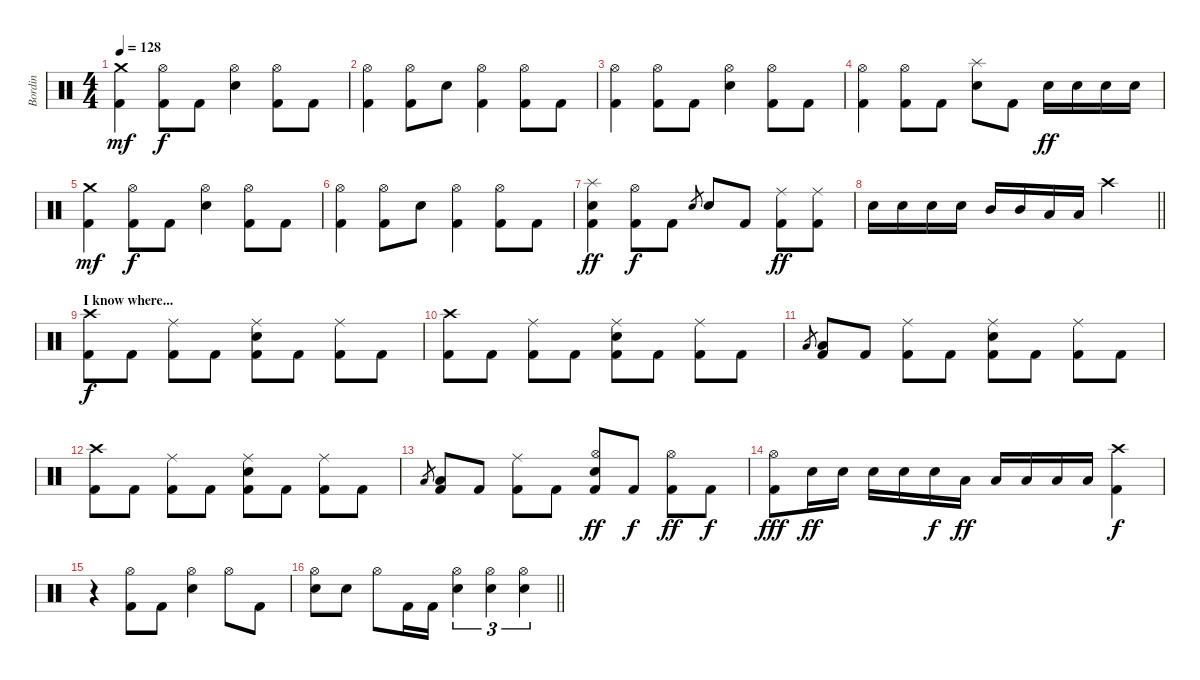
\track ("Bordin" "Bordin") {instrument percussion}
\staff {score}
\articulation defaults
\ts (4 4)
\tempo 128
\clef neutral
\ks c
("Crash medium (hit)" "Kick (hit) 2").4{dy mf} ("Hi-Hat (open)" "Kick (hit) 2").8{dy f} "Kick (hit) 2".8 ("Hi-Hat (open)" "Electric Snare (hit)").4 ("Hi-Hat (open)" "Kick (hit) 2").8 "Kick (hit) 2".8 |
("Hi-Hat (open)" "Kick (hit) 2").4 ("Hi-Hat (open)" "Kick (hit) 2").8 "Electric Snare (hit)".8 ("Hi-Hat (open)" "Kick (hit) 2").4 ("Hi-Hat (open)" "Kick (hit) 2").8 "Kick (hit) 2".8 |
("Hi-Hat (open)" "Kick (hit) 2").4 ("Hi-Hat (open)" "Kick (hit) 2").8 "Kick (hit) 2".8 ("Hi-Hat (open)" "Electric Snare (hit)").4 ("Hi-Hat (open)" "Kick (hit) 2").8 "Kick (hit) 2".8 |
("Hi-Hat (open)" "Kick (hit) 2").4 ("Hi-Hat (open)" "Kick (hit) 2").8 "Kick (hit) 2".8 ("Splash (hit)" "Electric Snare (hit)").8 "Kick (hit) 2".8 "Electric Snare (hit)".16{dy ff} "Electric Snare (hit)".16 "Electric Snare (hit)".16 "Electric Snare (hit)".16 |
("Crash medium (hit)" "Kick (hit) 2").4{dy mf} ("Hi-Hat (open)" "Kick (hit) 2").8{dy f} "Kick (hit) 2".8 ("Hi-Hat (open)" "Electric Snare (hit)").4 ("Hi-Hat (open)" "Kick (hit) 2").8 "Kick (hit) 2".8 |
("Hi-Hat (open)" "Kick (hit) 2").4 ("Hi-Hat (open)" "Kick (hit) 2").8 "Electric Snare (hit)".8 ("Hi-Hat (open)" "Kick (hit) 2").4 ("Hi-Hat (open)" "Kick (hit) 2").8 "Kick (hit) 2".8 |
("Splash (hit)" "Electric Snare (hit)" "Kick (hit) 2").4{dy ff} ("Hi-Hat (open)" "Kick (hit) 2").8{dy f} "Kick (hit) 2".8 "Electric Snare (hit)".8{gr} "Electric Snare (hit)".8 "Kick (hit) 2".8 ("Ride (middle)" "Kick (hit) 2").8{dy ff} ("Ride (middle)" "Kick (hit) 2").8 |
\barLineRight lightlight "Electric Snare (hit)".16 "Electric Snare (hit)".16 "Electric Snare (hit)".16 "Electric Snare (hit)".16 "Mid Tom (hit)".16 "Mid Tom (hit)".16 "Low Tom (hit)".16 "Low Tom (hit)".16 "Crash high (hit)".2
|
\section ("" "I know where...")
("Crash high (hit)" "Kick (hit) 2").8{dy f} "Kick (hit) 2".8 ("Ride (middle)" "Kick (hit) 2").8 "Kick (hit) 2".8 ("Ride (middle)" "Electric Snare (hit)" "Kick (hit) 2").8 "Kick (hit) 2".8 ("Ride (middle)" "Kick (hit) 2").8 "Kick (hit) 2".8 |
("Crash high (hit)" "Kick (hit) 2").8 "Kick (hit) 2".8 ("Ride (middle)" "Kick (hit) 2").8 "Kick (hit) 2".8 ("Ride (middle)" "Electric Snare (hit)" "Kick (hit) 2").8 "Kick (hit) 2".8 ("Ride (middle)" "Kick (hit) 2").8 "Kick (hit) 2".8 |
"Low Tom (hit)".8{gr} ("Low Tom (hit)" "Kick (hit) 2").8 "Kick (hit) 2".8 ("Ride (middle)" "Kick (hit) 2").8 "Kick (hit) 2".8 ("Ride (middle)" "Electric Snare (hit)" "Kick (hit) 2").8 "Kick (hit) 2".8 ("Ride (middle)" "Kick (hit) 2").8 "Kick (hit) 2".8 |
("Crash high (hit)" "Kick (hit) 2").8 "Kick (hit) 2".8 ("Ride (middle)" "Kick (hit) 2").8 "Kick (hit) 2".8 ("Ride (middle)" "Electric Snare (hit)" "Kick (hit) 2").8 "Kick (hit) 2".8 ("Ride (middle)" "Kick (hit) 2").8 "Kick (hit) 2".8 |
"Low Tom (hit)".8{gr} ("Low Tom (hit)" "Kick (hit) 2").8 "Kick (hit) 2".8 ("Ride (middle)" "Kick (hit) 2").8 "Kick (hit) 2".8 ("Hi-Hat (open)" "Electric Snare (hit)" "Kick (hit) 2").8{dy ff} "Kick (hit) 2".8{dy f} ("Hi-Hat (open)" "Kick (hit) 2").8{dy ff} "Kick (hit) 2".8{dy f} |
("Hi-Hat (open)" "Kick (hit) 2").8{dy fff} "Electric Snare (hit)".16{dy ff} "Electric Snare (hit)".16 "Electric Snare (hit)".16 "Electric Snare (hit)".16 "Electric Snare (hit)".16{dy f} "Low Tom (hit)".16{dy ff} "Low Tom (hit)".16 "Low Tom (hit)".16 "Low Tom (hit)".16 "Low Tom (hit)".16 ("Crash high (hit)" "Kick (hit) 2").4{dy f} |
r.4 ("Hi-Hat (open)" "Kick (hit) 2").8 "Kick (hit) 2".8 ("Hi-Hat (open)" "Electric Snare (hit)").4 "Hi-Hat (open)".8 "Kick (hit) 2".8 |
\barLineRight lightlight
("Hi-Hat (open)" "Electric Snare (hit)").8 "Electric Snare (hit)".8 "Hi-Hat (open)".8 "Kick (hit) 2".16 "Kick (hit) 2".16 ("Hi-Hat (open)" "Electric Snare (hit)").4{tu (3 2)} ("Hi-Hat (open)" "Electric Snare (hit)").4{tu (3 2)} ("Hi-Hat (open)" "Electric Snare (hit)").4{tu (3 2)}
